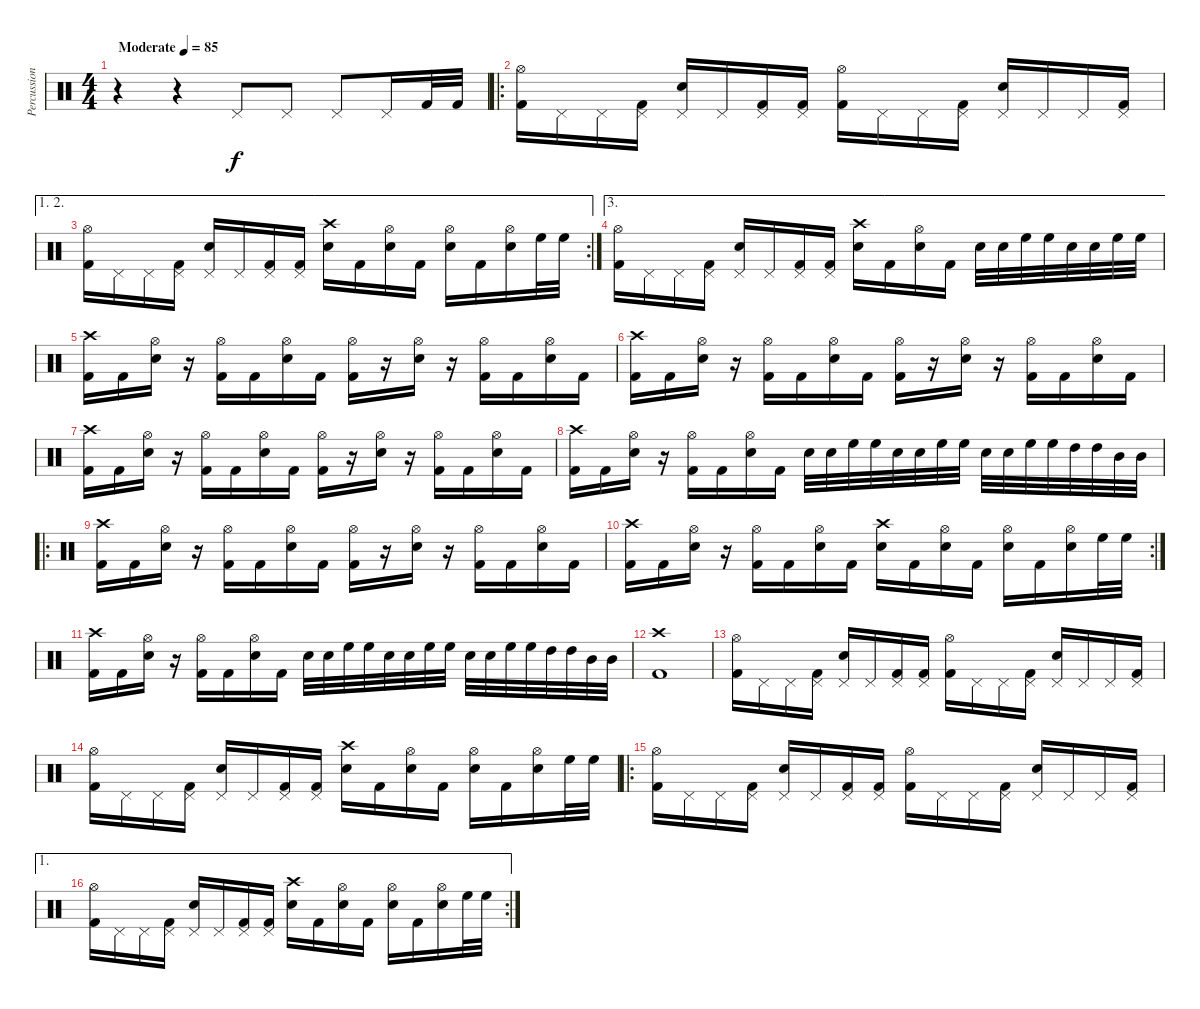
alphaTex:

\track ("Percussion" "Percussion") {instrument percussion}
\staff {score}
\articulation defaults
\ts (4 4)
\tempo (85 "Moderate")
\clef neutral
\ks c
r.4{dy f} r.4 "Pedal Hi-Hat (hit)".8 "Pedal Hi-Hat (hit)".8 "Pedal Hi-Hat (hit)".8 "Pedal Hi-Hat (hit)".16 "Kick (hit) 2".32 "Kick (hit) 2".32 |
\ro
("Kick (hit) 2" "Hi-Hat (open)").16 "Pedal Hi-Hat (hit)".16 "Pedal Hi-Hat (hit)".16 ("Kick (hit) 2" "Pedal Hi-Hat (hit)").16 ("Electric Snare (hit)" "Pedal Hi-Hat (hit)").16 "Pedal Hi-Hat (hit)".16 ("Kick (hit) 2" "Pedal Hi-Hat (hit)").16 ("Kick (hit) 2" "Pedal Hi-Hat (hit)").16 ("Kick (hit) 2" "Hi-Hat (open)").16 "Pedal Hi-Hat (hit)".16 "Pedal Hi-Hat (hit)".16 ("Kick (hit) 2" "Pedal Hi-Hat (hit)").16 ("Electric Snare (hit)" "Pedal Hi-Hat (hit)").16 "Pedal Hi-Hat (hit)".16 "Pedal Hi-Hat (hit)".16 ("Kick (hit) 2" "Pedal Hi-Hat (hit)").16 |
\ae (1 2)
\rc 2
("Kick (hit) 2" "Hi-Hat (open)").16 "Pedal Hi-Hat (hit)".16 "Pedal Hi-Hat (hit)".16 ("Kick (hit) 2" "Pedal Hi-Hat (hit)").16 ("Electric Snare (hit)" "Pedal Hi-Hat (hit)").16 "Pedal Hi-Hat (hit)".16 ("Kick (hit) 2" "Pedal Hi-Hat (hit)").16 ("Kick (hit) 2" "Pedal Hi-Hat (hit)").16 ("Crash high (hit)" "Electric Snare (hit)").16 "Kick (hit) 2".16 ("Hi-Hat (open)" "Electric Snare (hit)").16 "Kick (hit) 2".16 ("Hi-Hat (open)" "Electric Snare (hit)").16 "Kick (hit) 2".16 ("Hi-Hat (open)" "Electric Snare (hit)").16 "High Floor Tom (hit)".32 "High Floor Tom (hit)".32 |
\ae 3
("Kick (hit) 2" "Hi-Hat (open)").16 "Pedal Hi-Hat (hit)".16 "Pedal Hi-Hat (hit)".16 ("Kick (hit) 2" "Pedal Hi-Hat (hit)").16 ("Electric Snare (hit)" "Pedal Hi-Hat (hit)").16 "Pedal Hi-Hat (hit)".16 ("Kick (hit) 2" "Pedal Hi-Hat (hit)").16 ("Kick (hit) 2" "Pedal Hi-Hat (hit)").16 ("Crash high (hit)" "Electric Snare (hit)").16 "Kick (hit) 2".16 ("Hi-Hat (open)" "Electric Snare (hit)").16 "Kick (hit) 2".16 "Electric Snare (hit)".32 "Electric Snare (hit)".32 "High Floor Tom (hit)".32 "High Floor Tom (hit)".32 "Electric Snare (hit)".32 "Electric Snare (hit)".32 "High Floor Tom (hit)".32 "High Floor Tom (hit)".32 |
("Crash high (hit)" "Kick (hit) 2").16 "Kick (hit) 2".16 ("Hi-Hat (open)" "Electric Snare (hit)").16 r.16 ("Hi-Hat (open)" "Kick (hit) 2").16 "Kick (hit) 2".16 ("Hi-Hat (open)" "Electric Snare (hit)").16 "Kick (hit) 2".16 ("Hi-Hat (open)" "Kick (hit) 2").16 r.16 ("Hi-Hat (open)" "Electric Snare (hit)").16 r.16 ("Hi-Hat (open)" "Kick (hit) 2").16 "Kick (hit) 2".16 ("Hi-Hat (open)" "Electric Snare (hit)").16 "Kick (hit) 2".16 |
("Crash high (hit)" "Kick (hit) 2").16 "Kick (hit) 2".16 ("Hi-Hat (open)" "Electric Snare (hit)").16 r.16 ("Hi-Hat (open)" "Kick (hit) 2").16 "Kick (hit) 2".16 ("Hi-Hat (open)" "Electric Snare (hit)").16 "Kick (hit) 2".16 ("Hi-Hat (open)" "Kick (hit) 2").16 r.16 ("Hi-Hat (open)" "Electric Snare (hit)").16 r.16 ("Hi-Hat (open)" "Kick (hit) 2").16 "Kick (hit) 2".16 ("Hi-Hat (open)" "Electric Snare (hit)").16 "Kick (hit) 2".16 |
("Crash high (hit)" "Kick (hit) 2").16 "Kick (hit) 2".16 ("Hi-Hat (open)" "Electric Snare (hit)").16 r.16 ("Hi-Hat (open)" "Kick (hit) 2").16 "Kick (hit) 2".16 ("Hi-Hat (open)" "Electric Snare (hit)").16 "Kick (hit) 2".16 ("Hi-Hat (open)" "Kick (hit) 2").16 r.16 ("Hi-Hat (open)" "Electric Snare (hit)").16 r.16 ("Hi-Hat (open)" "Kick (hit) 2").16 "Kick (hit) 2".16 ("Hi-Hat (open)" "Electric Snare (hit)").16 "Kick (hit) 2".16 |
("Crash high (hit)" "Kick (hit) 2").16 "Kick (hit) 2".16 ("Hi-Hat (open)" "Electric Snare (hit)").16 r.16 ("Hi-Hat (open)" "Kick (hit) 2").16 "Kick (hit) 2".16 ("Hi-Hat (open)" "Electric Snare (hit)").16 "Kick (hit) 2".16 "Electric Snare (hit)".32 "Electric Snare (hit)".32 "High Floor Tom (hit)".32 "High Floor Tom (hit)".32 "Electric Snare (hit)".32 "Electric Snare (hit)".32 "High Floor Tom (hit)".32 "High Floor Tom (hit)".32 "Electric Snare (hit)".32 "Electric Snare (hit)".32 "High Floor Tom (hit)".32 "High Floor Tom (hit)".32 "High Tom (hit)".32 "High Tom (hit)".32 "Mid Tom (hit)".32 "Mid Tom (hit)".32 |
\ro
("Crash high (hit)" "Kick (hit) 2").16 "Kick (hit) 2".16 ("Hi-Hat (open)" "Electric Snare (hit)").16 r.16 ("Hi-Hat (open)" "Kick (hit) 2").16 "Kick (hit) 2".16 ("Hi-Hat (open)" "Electric Snare (hit)").16 "Kick (hit) 2".16 ("Hi-Hat (open)" "Kick (hit) 2").16 r.16 ("Hi-Hat (open)" "Electric Snare (hit)").16 r.16 ("Hi-Hat (open)" "Kick (hit) 2").16 "Kick (hit) 2".16 ("Hi-Hat (open)" "Electric Snare (hit)").16 "Kick (hit) 2".16 |
\rc 2
("Crash high (hit)" "Kick (hit) 2").16 "Kick (hit) 2".16 ("Hi-Hat (open)" "Electric Snare (hit)").16 r.16 ("Hi-Hat (open)" "Kick (hit) 2").16 "Kick (hit) 2".16 ("Hi-Hat (open)" "Electric Snare (hit)").16 "Kick (hit) 2".16 ("Crash high (hit)" "Electric Snare (hit)").16 "Kick (hit) 2".16 ("Hi-Hat (open)" "Electric Snare (hit)").16 "Kick (hit) 2".16 ("Hi-Hat (open)" "Electric Snare (hit)").16 "Kick (hit) 2".16 ("Hi-Hat (open)" "Electric Snare (hit)").16 "High Floor Tom (hit)".32 "High Floor Tom (hit)".32 |
("Crash high (hit)" "Kick (hit) 2").16 "Kick (hit) 2".16 ("Hi-Hat (open)" "Electric Snare (hit)").16 r.16 ("Hi-Hat (open)" "Kick (hit) 2").16 "Kick (hit) 2".16 ("Hi-Hat (open)" "Electric Snare (hit)").16 "Kick (hit) 2".16 "Electric Snare (hit)".32 "Electric Snare (hit)".32 "High Floor Tom (hit)".32 "High Floor Tom (hit)".32 "Electric Snare (hit)".32 "Electric Snare (hit)".32 "High Floor Tom (hit)".32 "High Floor Tom (hit)".32 "Electric Snare (hit)".32 "Electric Snare (hit)".32 "High Floor Tom (hit)".32 "High Floor Tom (hit)".32 "High Tom (hit)".32 "High Tom (hit)".32 "Mid Tom (hit)".32 "Mid Tom (hit)".32 |
("Kick (hit) 2" "Crash high (hit)").1 |
("Kick (hit) 2" "Hi-Hat (open)").16 "Pedal Hi-Hat (hit)".16 "Pedal Hi-Hat (hit)".16 ("Kick (hit) 2" "Pedal Hi-Hat (hit)").16 ("Electric Snare (hit)" "Pedal Hi-Hat (hit)").16 "Pedal Hi-Hat (hit)".16 ("Kick (hit) 2" "Pedal Hi-Hat (hit)").16 ("Kick (hit) 2" "Pedal Hi-Hat (hit)").16 ("Kick (hit) 2" "Hi-Hat (open)").16 "Pedal Hi-Hat (hit)".16 "Pedal Hi-Hat (hit)".16 ("Kick (hit) 2" "Pedal Hi-Hat (hit)").16 ("Electric Snare (hit)" "Pedal Hi-Hat (hit)").16 "Pedal Hi-Hat (hit)".16 "Pedal Hi-Hat (hit)".16 ("Kick (hit) 2" "Pedal Hi-Hat (hit)").16 |
("Kick (hit) 2" "Hi-Hat (open)").16 "Pedal Hi-Hat (hit)".16 "Pedal Hi-Hat (hit)".16 ("Kick (hit) 2" "Pedal Hi-Hat (hit)").16 ("Electric Snare (hit)" "Pedal Hi-Hat (hit)").16 "Pedal Hi-Hat (hit)".16 ("Kick (hit) 2" "Pedal Hi-Hat (hit)").16 ("Kick (hit) 2" "Pedal Hi-Hat (hit)").16 ("Crash high (hit)" "Electric Snare (hit)").16 "Kick (hit) 2".16 ("Hi-Hat (open)" "Electric Snare (hit)").16 "Kick (hit) 2".16 ("Hi-Hat (open)" "Electric Snare (hit)").16 "Kick (hit) 2".16 ("Hi-Hat (open)" "Electric Snare (hit)").16 "High Floor Tom (hit)".32 "High Floor Tom (hit)".32 |
\ro
("Kick (hit) 2" "Hi-Hat (open)").16 "Pedal Hi-Hat (hit)".16 "Pedal Hi-Hat (hit)".16 ("Kick (hit) 2" "Pedal Hi-Hat (hit)").16 ("Electric Snare (hit)" "Pedal Hi-Hat (hit)").16 "Pedal Hi-Hat (hit)".16 ("Kick (hit) 2" "Pedal Hi-Hat (hit)").16 ("Kick (hit) 2" "Pedal Hi-Hat (hit)").16 ("Kick (hit) 2" "Hi-Hat (open)").16 "Pedal Hi-Hat (hit)".16 "Pedal Hi-Hat (hit)".16 ("Kick (hit) 2" "Pedal Hi-Hat (hit)").16 ("Electric Snare (hit)" "Pedal Hi-Hat (hit)").16 "Pedal Hi-Hat (hit)".16 "Pedal Hi-Hat (hit)".16 ("Kick (hit) 2" "Pedal Hi-Hat (hit)").16 |
\ae 1
\rc 2
("Kick (hit) 2" "Hi-Hat (open)").16 "Pedal Hi-Hat (hit)".16 "Pedal Hi-Hat (hit)".16 ("Kick (hit) 2" "Pedal Hi-Hat (hit)").16 ("Electric Snare (hit)" "Pedal Hi-Hat (hit)").16 "Pedal Hi-Hat (hit)".16 ("Kick (hit) 2" "Pedal Hi-Hat (hit)").16 ("Kick (hit) 2" "Pedal Hi-Hat (hit)").16 ("Crash high (hit)" "Electric Snare (hit)").16 "Kick (hit) 2".16 ("Hi-Hat (open)" "Electric Snare (hit)").16 "Kick (hit) 2".16 ("Hi-Hat (open)" "Electric Snare (hit)").16 "Kick (hit) 2".16 ("Hi-Hat (open)" "Electric Snare (hit)").16 "High Floor Tom (hit)".32 "High Floor Tom (hit)".32
